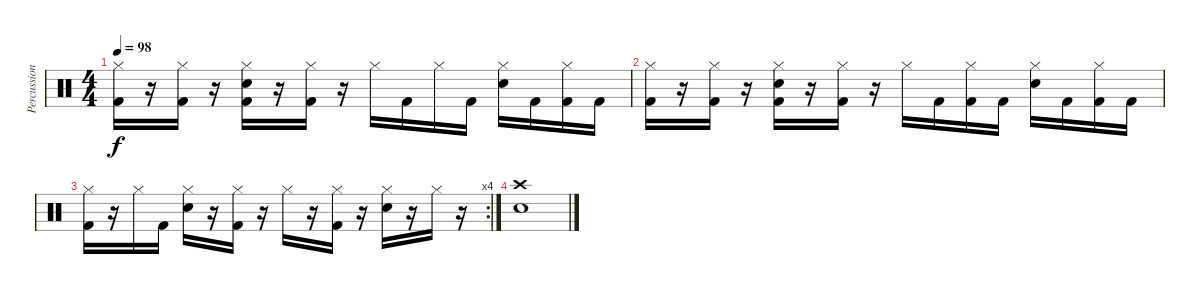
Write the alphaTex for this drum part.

\track ("Percussion" "Percussion") {instrument percussion}
\staff {score}
\articulation defaults
\ts (4 4)
\tempo 98
\clef neutral
\ks c
("Kick (hit) 2" "Hi-Hat (closed)").16{dy f} r.16 ("Kick (hit) 2" "Hi-Hat (closed)").16 r.16 ("Kick (hit) 2" "Hi-Hat (closed)" "Snare (hit) 2").16 r.16 ("Kick (hit) 2" "Hi-Hat (closed)").16 r.16 "Hi-Hat (closed)".16 "Kick (hit) 2".16 "Hi-Hat (closed)".16 "Kick (hit) 2".16 ("Hi-Hat (closed)" "Snare (hit) 2").16 "Kick (hit) 2".16 ("Kick (hit) 2" "Hi-Hat (closed)").16 "Kick (hit) 2".16 |
("Kick (hit) 2" "Hi-Hat (closed)").16 r.16 ("Kick (hit) 2" "Hi-Hat (closed)").16 r.16 ("Kick (hit) 2" "Hi-Hat (closed)" "Snare (hit) 2").16 r.16 ("Kick (hit) 2" "Hi-Hat (closed)").16 r.16 "Hi-Hat (closed)".16 "Kick (hit) 2".16 ("Kick (hit) 2" "Hi-Hat (closed)").16 "Kick (hit) 2".16 ("Hi-Hat (closed)" "Snare (hit) 2").16 "Kick (hit) 2".16 ("Kick (hit) 2" "Hi-Hat (closed)").16 "Kick (hit) 2".16 |
\rc 4
("Kick (hit) 2" "Hi-Hat (closed)").16 r.16 "Hi-Hat (closed)".16 "Kick (hit) 2".16 ("Hi-Hat (closed)" "Snare (hit) 2").16 r.16 ("Kick (hit) 2" "Hi-Hat (closed)").16 r.16 "Hi-Hat (closed)".16 r.16 ("Kick (hit) 2" "Hi-Hat (closed)").16 r.16 ("Hi-Hat (closed)" "Snare (hit) 2").16 r.16 "Hi-Hat (closed)".16 r.16 |
("Crash high (hit)" "Snare (hit) 2").1
